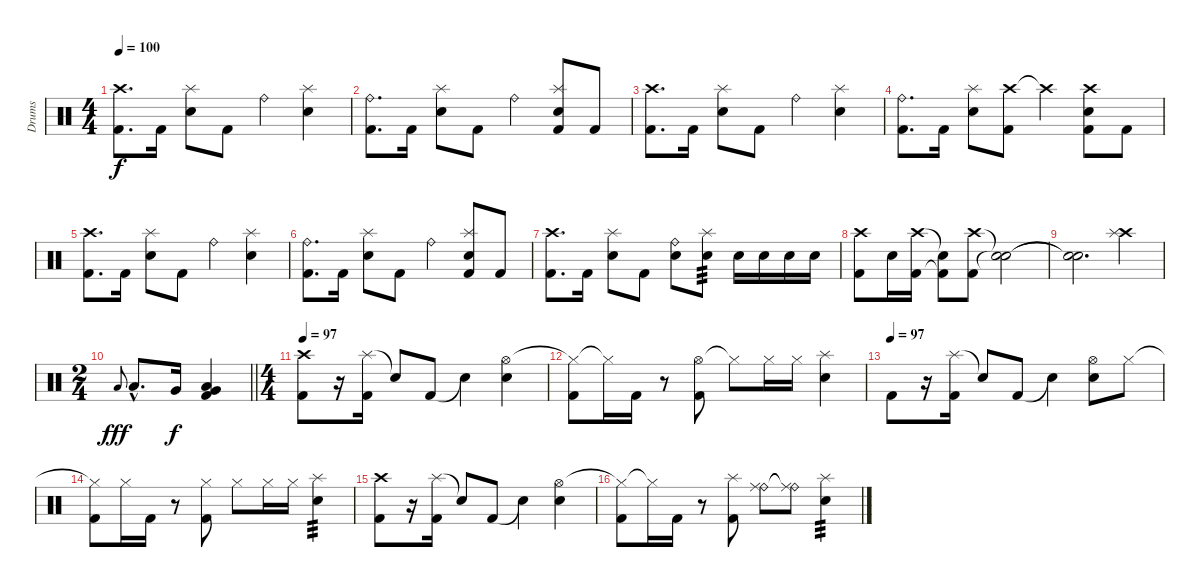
\track ("Drums" "Drums") {instrument percussion}
\staff {score}
\articulation defaults
\ts (4 4)
\tempo 100
\clef neutral
\ks c
("Crash high (hit)" "Kick (hit) 2").8{d dy f} "Kick (hit) 2".16 ("Splash (hit)" "Electric Snare (hit)").8 "Kick (hit) 2".8 "Ride (bell)".4 ("Splash (hit)" "Electric Snare (hit)").4 |
("Ride (bell)" "Kick (hit) 2").8{d} "Kick (hit) 2".16 ("Splash (hit)" "Electric Snare (hit)").8 "Kick (hit) 2".8 "Ride (bell)".4 ("Splash (hit)" "Electric Snare (hit)" "Kick (hit) 2").8 "Kick (hit) 2".8 |
("Crash high (hit)" "Kick (hit) 2").8{d} "Kick (hit) 2".16 ("Splash (hit)" "Electric Snare (hit)").8 "Kick (hit) 2".8 "Ride (bell)".4 ("Splash (hit)" "Electric Snare (hit)").4 |
("Ride (bell)" "Kick (hit) 2").8{d} "Kick (hit) 2".16 ("Splash (hit)" "Electric Snare (hit)").8 ("Crash high (hit)" "Kick (hit) 2").8 "Crash high (hit)"{t}.4 ("Crash high (hit)" "Electric Snare (hit)" "Kick (hit) 2").8 "Kick (hit) 2".8 |
("Crash high (hit)" "Kick (hit) 2").8{d} "Kick (hit) 2".16 ("Splash (hit)" "Electric Snare (hit)").8 "Kick (hit) 2".8 "Ride (bell)".4 ("Splash (hit)" "Electric Snare (hit)").4 |
("Ride (bell)" "Kick (hit) 2").8{d} "Kick (hit) 2".16 ("Splash (hit)" "Electric Snare (hit)").8 "Kick (hit) 2".8 "Ride (bell)".4 ("Splash (hit)" "Electric Snare (hit)" "Kick (hit) 2").8 "Kick (hit) 2".8 |
("Crash high (hit)" "Kick (hit) 2").8{d} "Kick (hit) 2".16 ("Splash (hit)" "Electric Snare (hit)").8 "Kick (hit) 2".8 ("Ride (bell)" "Electric Snare (hit)").8 ("Splash (hit)" "Electric Snare (hit)").8{tp 3} "Electric Snare (hit)".16 "Electric Snare (hit)".16 "Electric Snare (hit)".16 "Electric Snare (hit)".16 |
("Crash high (hit)" "Kick (hit) 2").8 "Electric Snare (hit)".16 ("Crash high (hit)" "Kick (hit) 2").16 ("Snare (hit)"{t} "Kick (hit) 2"{t}).8 ("Crash high (hit)" "Kick (hit) 2").8 ("Snare (hit)"{t} "Snare (hit)"{t}).2 |
("Snare (hit)"{t} "Snare (hit)"{t}).2{d} ("Crash high (hit)" "Splash (hit)").4 |
\ts (2 4)
\barLineRight lightlight "Low Tom (hit)"{h}.8{gr onbeat dy fff} "Low Tom (hit)"{hac}.8{d} "Very Low Tom (hit)".16{dy f}
("Low Tom (hit)" "Very Low Tom (hit)" "Kick (hit) 2").4 |
\ts (4 4)
\tempo 97
("Crash high (hit)" "Kick (hit) 2").8 r.16 ("Splash (hit)" "Kick (hit) 2").16 "Snare (hit)"{t}.8 "Kick (hit) 2".8 "Snare (hit)"{t}.4 ("Hi-Hat (open)" "Electric Snare (hit)").4 |
("Hi-Hat (closed)"{t} "Kick (hit) 2").8 "Hi-Hat (closed)"{t}.16 "Kick (hit) 2".16 r.8 ("Hi-Hat (open)" "Kick (hit) 2").8 "Hi-Hat (closed)"{t}.8 "Hi-Hat (closed)".16 "Hi-Hat (closed)".16 ("Splash (hit)" "Electric Snare (hit)").4 |
\tempo (97)
"Kick (hit) 2".8 r.16 ("Splash (hit)" "Kick (hit) 2").16 "Snare (hit)"{t}.8 "Kick (hit) 2".8 "Snare (hit)"{t}.4 ("Hi-Hat (open)" "Electric Snare (hit)").8 "Hi-Hat (closed)".8 |
("Hi-Hat (closed)"{t} "Kick (hit) 2").8 "Hi-Hat (closed)".16 "Kick (hit) 2".16 r.8 ("Hi-Hat (closed)" "Kick (hit) 2").8 "Hi-Hat (closed)".8 "Hi-Hat (closed)".16 "Hi-Hat (closed)".16 ("Splash (hit)" "Electric Snare (hit)").4{tp 3 volume 13} |
("Crash high (hit)" "Kick (hit) 2").8 r.16 ("Splash (hit)" "Kick (hit) 2").16 "Snare (hit)"{t}.8 "Kick (hit) 2".8 "Snare (hit)"{t}.4 ("Hi-Hat (open)" "Electric Snare (hit)").4 |
("Hi-Hat (closed)"{t} "Kick (hit) 2").8 "Hi-Hat (closed)"{t}.16 "Kick (hit) 2".16 r.8 ("Splash (hit)" "Kick (hit) 2").8 ("Ride (bell)" "Ride (middle)").8{volume 16} ("Ride (bell)"{t} "Ride (middle)"{t}).8 ("Splash (hit)" "Electric Snare (hit)").4{tp 3 volume 13}
